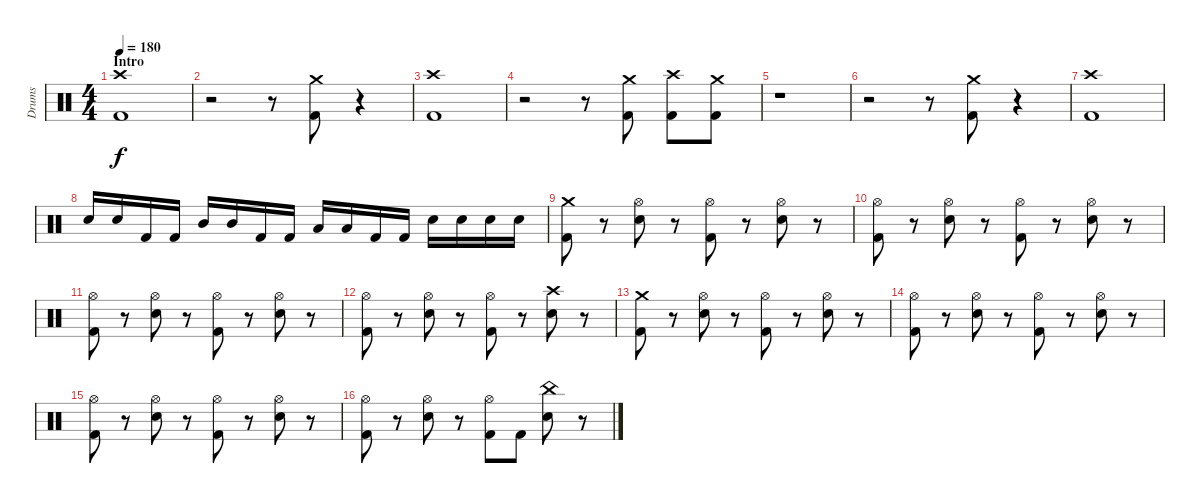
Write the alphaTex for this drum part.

\track ("Drums" "Drums") {instrument percussion}
\staff {score}
\articulation defaults
\ts (4 4)
\section ("" "Intro")
\tempo 180
\clef neutral
\ks c
("Crash high (hit)" "Kick (hit) 2").1{dy f} |
r.2 r.8 ("Crash medium (hit)" "Kick (hit) 2").8 r.4 |
("Crash high (hit)" "Kick (hit) 2").1 |
r.2 r.8 ("Crash medium (hit)" "Kick (hit) 2").8 ("Crash high (hit)" "Kick (hit) 2").8 ("Crash medium (hit)" "Kick (hit) 2").8 |
r.1 |
r.2 r.8 ("Crash medium (hit)" "Kick (hit) 2").8 r.4 |
("Crash high (hit)" "Kick (hit) 2").1 |
"Snare (hit) 2".16 "Snare (hit) 2".16 "Kick (hit) 2".16 "Kick (hit) 2".16 "Mid Tom (hit)".16 "Mid Tom (hit)".16 "Kick (hit) 2".16 "Kick (hit) 2".16 "Low Tom (hit)".16 "Low Tom (hit)".16 "Kick (hit) 2".16 "Kick (hit) 2".16 "Snare (hit) 2".16 "Snare (hit) 2".16 "Snare (hit) 2".16 "Snare (hit) 2".16 |
("Crash medium (hit)" "Kick (hit) 2").8 r.8 ("Hi-Hat (open)" "Snare (hit) 2").8 r.8 ("Hi-Hat (open)" "Kick (hit) 2").8 r.8 ("Hi-Hat (open)" "Snare (hit) 2").8 r.8 |
("Hi-Hat (open)" "Kick (hit) 2").8 r.8 ("Hi-Hat (open)" "Snare (hit) 2").8 r.8 ("Hi-Hat (open)" "Kick (hit) 2").8 r.8 ("Hi-Hat (open)" "Snare (hit) 2").8 r.8 |
("Hi-Hat (open)" "Kick (hit) 2").8 r.8 ("Hi-Hat (open)" "Snare (hit) 2").8 r.8 ("Hi-Hat (open)" "Kick (hit) 2").8 r.8 ("Hi-Hat (open)" "Snare (hit) 2").8 r.8 |
("Hi-Hat (open)" "Kick (hit) 2").8 r.8 ("Hi-Hat (open)" "Snare (hit) 2").8 r.8 ("Hi-Hat (open)" "Kick (hit) 2").8 r.8 ("Crash high (hit)" "Snare (hit) 2").8 r.8 |
("Crash medium (hit)" "Kick (hit) 2").8 r.8 ("Hi-Hat (open)" "Snare (hit) 2").8 r.8 ("Hi-Hat (open)" "Kick (hit) 2").8 r.8 ("Hi-Hat (open)" "Snare (hit) 2").8 r.8 |
("Hi-Hat (open)" "Kick (hit) 2").8 r.8 ("Hi-Hat (open)" "Snare (hit) 2").8 r.8 ("Hi-Hat (open)" "Kick (hit) 2").8 r.8 ("Hi-Hat (open)" "Snare (hit) 2").8 r.8 |
("Hi-Hat (open)" "Kick (hit) 2").8 r.8 ("Hi-Hat (open)" "Snare (hit) 2").8 r.8 ("Hi-Hat (open)" "Kick (hit) 2").8 r.8 ("Hi-Hat (open)" "Snare (hit) 2").8 r.8 |
("Hi-Hat (open)" "Kick (hit) 2").8 r.8 ("Hi-Hat (open)" "Snare (hit) 2").8 r.8 ("Hi-Hat (open)" "Kick (hit) 2").8 "Kick (hit) 2".8 ("China (hit)" "Snare (hit) 2").8 r.8
